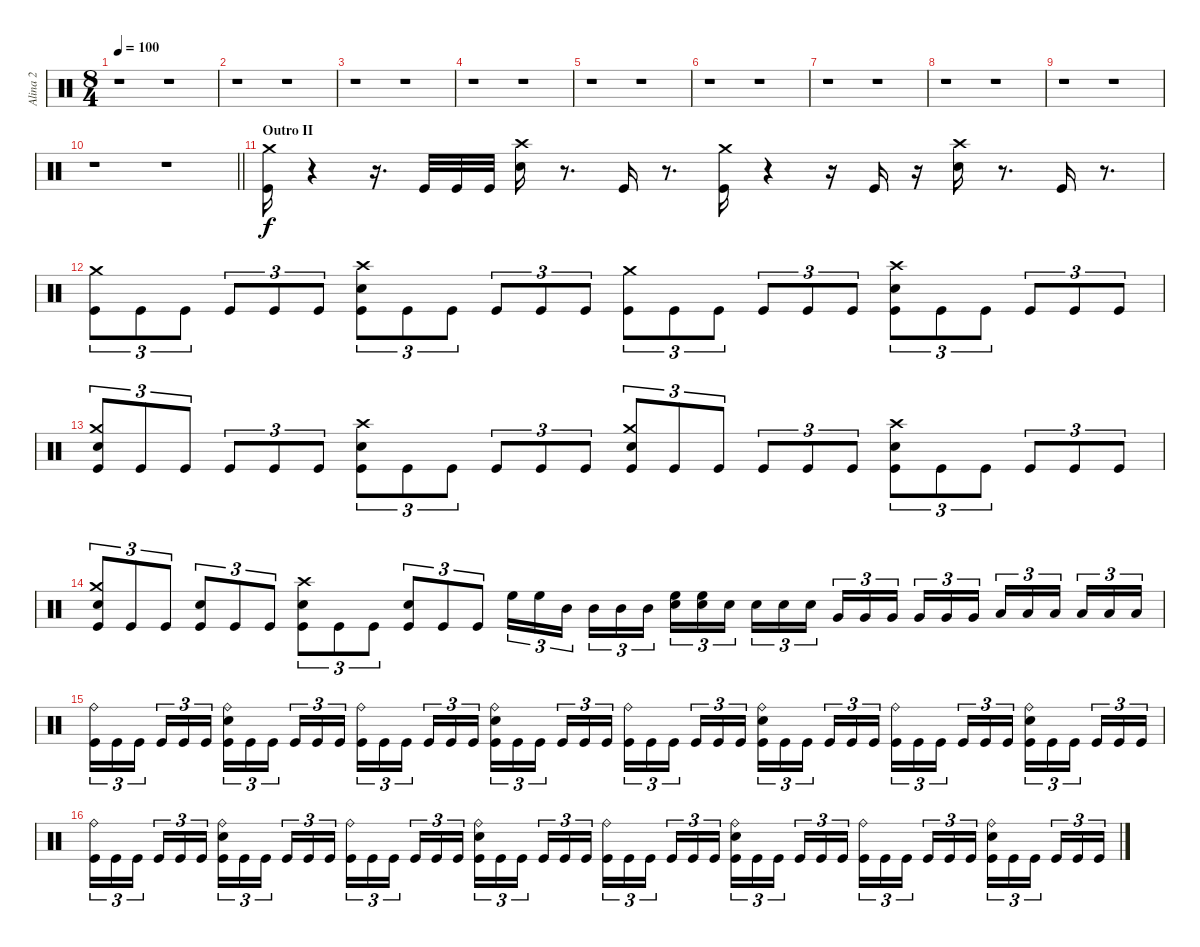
\track ("Alina 2" "Alina 2") {mute instrument percussion}
\staff {score}
\articulation defaults
\ts (8 4)
\tempo 100
\clef neutral
\ks c
r.1{dy f} r.1 |
r.1 r.1 |
r.1 r.1 |
r.1 r.1 |
r.1 r.1 |
r.1 r.1 |
r.1 r.1 |
r.1 r.1 |
r.1 r.1 |
\barLineRight lightlight
r.1 r.1 |
\section ("" "Outro II")
("Kick (hit)" "Crash medium (hit)").16 r.4 r.16{d} "Kick (hit)".32 "Kick (hit)".32 "Kick (hit)".32 ("Snare (hit) 2" "Crash high (hit)").16 r.8{d} "Kick (hit)".16 r.8{d} ("Kick (hit)" "Crash medium (hit)").16 r.4 r.16 "Kick (hit)".16 r.16 ("Snare (hit) 2" "Crash high (hit)").16 r.8{d} "Kick (hit)".16 r.8{d} |
("Kick (hit)" "Crash medium (hit)").8{tu (3 2)} "Kick (hit)".8{tu (3 2)} "Kick (hit)".8{tu (3 2)} "Kick (hit)".8{tu (3 2)} "Kick (hit)".8{tu (3 2)} "Kick (hit)".8{tu (3 2)} ("Kick (hit)" "Snare (hit) 2" "Crash high (hit)").8{tu (3 2)} "Kick (hit)".8{tu (3 2)} "Kick (hit)".8{tu (3 2)} "Kick (hit)".8{tu (3 2)} "Kick (hit)".8{tu (3 2)} "Kick (hit)".8{tu (3 2)} ("Kick (hit)" "Crash medium (hit)").8{tu (3 2)} "Kick (hit)".8{tu (3 2)} "Kick (hit)".8{tu (3 2)} "Kick (hit)".8{tu (3 2)} "Kick (hit)".8{tu (3 2)} "Kick (hit)".8{tu (3 2)} ("Kick (hit)" "Snare (hit) 2" "Crash high (hit)").8{tu (3 2)} "Kick (hit)".8{tu (3 2)} "Kick (hit)".8{tu (3 2)} "Kick (hit)".8{tu (3 2)} "Kick (hit)".8{tu (3 2)} "Kick (hit)".8{tu (3 2)} |
("Kick (hit)" "Snare (hit) 2" "Crash medium (hit)").8{tu (3 2)} "Kick (hit)".8{tu (3 2)} "Kick (hit)".8{tu (3 2)} "Kick (hit)".8{tu (3 2)} "Kick (hit)".8{tu (3 2)} "Kick (hit)".8{tu (3 2)} ("Kick (hit)" "Snare (hit) 2" "Crash high (hit)").8{tu (3 2)} "Kick (hit)".8{tu (3 2)} "Kick (hit)".8{tu (3 2)} "Kick (hit)".8{tu (3 2)} "Kick (hit)".8{tu (3 2)} "Kick (hit)".8{tu (3 2)} ("Kick (hit)" "Snare (hit) 2" "Crash medium (hit)").8{tu (3 2)} "Kick (hit)".8{tu (3 2)} "Kick (hit)".8{tu (3 2)} "Kick (hit)".8{tu (3 2)} "Kick (hit)".8{tu (3 2)} "Kick (hit)".8{tu (3 2)} ("Kick (hit)" "Snare (hit) 2" "Crash high (hit)").8{tu (3 2)} "Kick (hit)".8{tu (3 2)} "Kick (hit)".8{tu (3 2)} "Kick (hit)".8{tu (3 2)} "Kick (hit)".8{tu (3 2)} "Kick (hit)".8{tu (3 2)} |
("Kick (hit)" "Snare (hit) 2" "Crash medium (hit)").8{tu (3 2)} "Kick (hit)".8{tu (3 2)} "Kick (hit)".8{tu (3 2)} ("Kick (hit)" "Snare (hit) 2").8{tu (3 2)} "Kick (hit)".8{tu (3 2)} "Kick (hit)".8{tu (3 2)} ("Kick (hit)" "Snare (hit) 2" "Crash high (hit)").8{tu (3 2)} "Kick (hit)".8{tu (3 2)} "Kick (hit)".8{tu (3 2)} ("Kick (hit)" "Snare (hit) 2").8{tu (3 2)} "Kick (hit)".8{tu (3 2)} "Kick (hit)".8{tu (3 2)} "High Floor Tom (hit)".16{tu (3 2)} "High Floor Tom (hit)".16{tu (3 2)} "Mid Tom (hit)".16{tu (3 2)} "Mid Tom (hit)".16{tu (3 2)} "Mid Tom (hit)".16{tu (3 2)} "Mid Tom (hit)".16{tu (3 2)} ("Snare (hit) 2" "High Floor Tom (hit)").16{tu (3 2)} ("Snare (hit) 2" "High Floor Tom (hit)").16{tu (3 2)} "Snare (hit) 2".16{tu (3 2)} "Snare (hit) 2".16{tu (3 2)} "Snare (hit) 2".16{tu (3 2)} "Snare (hit) 2".16{tu (3 2)} "Very Low Tom (hit)".16{tu (3 2)} "Very Low Tom (hit)".16{tu (3 2)} "Very Low Tom (hit)".16{tu (3 2)} "Very Low Tom (hit)".16{tu (3 2)} "Very Low Tom (hit)".16{tu (3 2)} "Very Low Tom (hit)".16{tu (3 2)} "Low Floor Tom (hit)".16{tu (3 2)} "Low Floor Tom (hit)".16{tu (3 2)} "Low Floor Tom (hit)".16{tu (3 2)} "Low Floor Tom (hit)".16{tu (3 2)} "Low Floor Tom (hit)".16{tu (3 2)} "Low Floor Tom (hit)".16{tu (3 2)} |
("Kick (hit)" "Ride (bell)").16{tu (3 2)} "Kick (hit)".16{tu (3 2)} "Kick (hit)".16{tu (3 2)} "Kick (hit)".16{tu (3 2)} "Kick (hit)".16{tu (3 2)} "Kick (hit)".16{tu (3 2)} ("Kick (hit)" "Snare (hit) 2" "Ride (bell)").16{tu (3 2)} "Kick (hit)".16{tu (3 2)} "Kick (hit)".16{tu (3 2)} "Kick (hit)".16{tu (3 2)} "Kick (hit)".16{tu (3 2)} "Kick (hit)".16{tu (3 2)} ("Kick (hit)" "Ride (bell)").16{tu (3 2)} "Kick (hit)".16{tu (3 2)} "Kick (hit)".16{tu (3 2)} "Kick (hit)".16{tu (3 2)} "Kick (hit)".16{tu (3 2)} "Kick (hit)".16{tu (3 2)} ("Kick (hit)" "Snare (hit) 2" "Ride (bell)").16{tu (3 2)} "Kick (hit)".16{tu (3 2)} "Kick (hit)".16{tu (3 2)} "Kick (hit)".16{tu (3 2)} "Kick (hit)".16{tu (3 2)} "Kick (hit)".16{tu (3 2)} ("Kick (hit)" "Ride (bell)").16{tu (3 2)} "Kick (hit)".16{tu (3 2)} "Kick (hit)".16{tu (3 2)} "Kick (hit)".16{tu (3 2)} "Kick (hit)".16{tu (3 2)} "Kick (hit)".16{tu (3 2)} ("Kick (hit)" "Snare (hit) 2" "Ride (bell)").16{tu (3 2)} "Kick (hit)".16{tu (3 2)} "Kick (hit)".16{tu (3 2)} "Kick (hit)".16{tu (3 2)} "Kick (hit)".16{tu (3 2)} "Kick (hit)".16{tu (3 2)} ("Kick (hit)" "Ride (bell)").16{tu (3 2)} "Kick (hit)".16{tu (3 2)} "Kick (hit)".16{tu (3 2)} "Kick (hit)".16{tu (3 2)} "Kick (hit)".16{tu (3 2)} "Kick (hit)".16{tu (3 2)} ("Kick (hit)" "Snare (hit) 2" "Ride (bell)").16{tu (3 2)} "Kick (hit)".16{tu (3 2)} "Kick (hit)".16{tu (3 2)} "Kick (hit)".16{tu (3 2)} "Kick (hit)".16{tu (3 2)} "Kick (hit)".16{tu (3 2)} |
("Kick (hit)" "Ride (bell)").16{tu (3 2)} "Kick (hit)".16{tu (3 2)} "Kick (hit)".16{tu (3 2)} "Kick (hit)".16{tu (3 2)} "Kick (hit)".16{tu (3 2)} "Kick (hit)".16{tu (3 2)} ("Kick (hit)" "Snare (hit) 2" "Ride (bell)").16{tu (3 2)} "Kick (hit)".16{tu (3 2)} "Kick (hit)".16{tu (3 2)} "Kick (hit)".16{tu (3 2)} "Kick (hit)".16{tu (3 2)} "Kick (hit)".16{tu (3 2)} ("Kick (hit)" "Ride (bell)").16{tu (3 2)} "Kick (hit)".16{tu (3 2)} "Kick (hit)".16{tu (3 2)} "Kick (hit)".16{tu (3 2)} "Kick (hit)".16{tu (3 2)} "Kick (hit)".16{tu (3 2)} ("Kick (hit)" "Snare (hit) 2" "Ride (bell)").16{tu (3 2)} "Kick (hit)".16{tu (3 2)} "Kick (hit)".16{tu (3 2)} "Kick (hit)".16{tu (3 2)} "Kick (hit)".16{tu (3 2)} "Kick (hit)".16{tu (3 2)} ("Kick (hit)" "Ride (bell)").16{tu (3 2)} "Kick (hit)".16{tu (3 2)} "Kick (hit)".16{tu (3 2)} "Kick (hit)".16{tu (3 2)} "Kick (hit)".16{tu (3 2)} "Kick (hit)".16{tu (3 2)} ("Kick (hit)" "Snare (hit) 2" "Ride (bell)").16{tu (3 2)} "Kick (hit)".16{tu (3 2)} "Kick (hit)".16{tu (3 2)} "Kick (hit)".16{tu (3 2)} "Kick (hit)".16{tu (3 2)} "Kick (hit)".16{tu (3 2)} ("Kick (hit)" "Ride (bell)").16{tu (3 2)} "Kick (hit)".16{tu (3 2)} "Kick (hit)".16{tu (3 2)} "Kick (hit)".16{tu (3 2)} "Kick (hit)".16{tu (3 2)} "Kick (hit)".16{tu (3 2)} ("Kick (hit)" "Snare (hit) 2" "Ride (bell)").16{tu (3 2)} "Kick (hit)".16{tu (3 2)} "Kick (hit)".16{tu (3 2)} "Kick (hit)".16{tu (3 2)} "Kick (hit)".16{tu (3 2)} "Kick (hit)".16{tu (3 2)}
